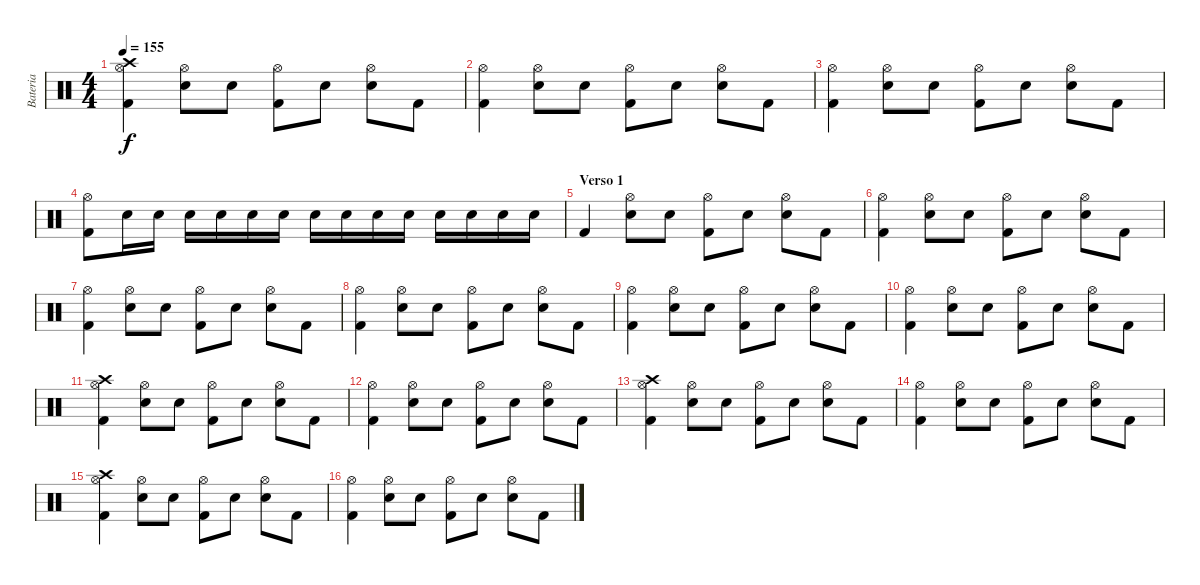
\track ("Bateria" "Bateria") {instrument percussion}
\staff {score}
\articulation defaults
\ts (4 4)
\tempo 155
\clef neutral
\ks c
("Crash high (hit)" "Hi-Hat (open)" "Kick (hit) 2").4{dy f} ("Hi-Hat (open)" "Electric Snare (hit)").8 "Electric Snare (hit)".8 ("Hi-Hat (open)" "Kick (hit) 2").8 "Electric Snare (hit)".8 ("Hi-Hat (open)" "Electric Snare (hit)").8 "Kick (hit) 2".8 |
("Hi-Hat (open)" "Kick (hit) 2").4 ("Hi-Hat (open)" "Electric Snare (hit)").8 "Electric Snare (hit)".8 ("Hi-Hat (open)" "Kick (hit) 2").8 "Electric Snare (hit)".8 ("Hi-Hat (open)" "Electric Snare (hit)").8 "Kick (hit) 2".8 |
("Hi-Hat (open)" "Kick (hit) 2").4 ("Hi-Hat (open)" "Electric Snare (hit)").8 "Electric Snare (hit)".8 ("Hi-Hat (open)" "Kick (hit) 2").8 "Electric Snare (hit)".8 ("Hi-Hat (open)" "Electric Snare (hit)").8 "Kick (hit) 2".8 |
("Hi-Hat (open)" "Kick (hit) 2").8 "Electric Snare (hit)".16 "Electric Snare (hit)".16 "Electric Snare (hit)".16 "Electric Snare (hit)".16 "Electric Snare (hit)".16 "Electric Snare (hit)".16 "Electric Snare (hit)".16 "Electric Snare (hit)".16 "Electric Snare (hit)".16 "Electric Snare (hit)".16 "Electric Snare (hit)".16 "Electric Snare (hit)".16 "Electric Snare (hit)".16 "Electric Snare (hit)".16 |
\section ("" "Verso 1")
"Kick (hit) 2".4 ("Hi-Hat (open)" "Electric Snare (hit)").8 "Electric Snare (hit)".8 ("Hi-Hat (open)" "Kick (hit) 2").8 "Electric Snare (hit)".8 ("Hi-Hat (open)" "Electric Snare (hit)").8 "Kick (hit) 2".8 |
("Hi-Hat (open)" "Kick (hit) 2").4 ("Hi-Hat (open)" "Electric Snare (hit)").8 "Electric Snare (hit)".8 ("Hi-Hat (open)" "Kick (hit) 2").8 "Electric Snare (hit)".8 ("Hi-Hat (open)" "Electric Snare (hit)").8 "Kick (hit) 2".8 |
("Hi-Hat (open)" "Kick (hit) 2").4 ("Hi-Hat (open)" "Electric Snare (hit)").8 "Electric Snare (hit)".8 ("Hi-Hat (open)" "Kick (hit) 2").8 "Electric Snare (hit)".8 ("Hi-Hat (open)" "Electric Snare (hit)").8 "Kick (hit) 2".8 |
("Hi-Hat (open)" "Kick (hit) 2").4 ("Hi-Hat (open)" "Electric Snare (hit)").8 "Electric Snare (hit)".8 ("Hi-Hat (open)" "Kick (hit) 2").8 "Electric Snare (hit)".8 ("Hi-Hat (open)" "Electric Snare (hit)").8 "Kick (hit) 2".8 |
("Hi-Hat (open)" "Kick (hit) 2").4 ("Hi-Hat (open)" "Electric Snare (hit)").8 "Electric Snare (hit)".8 ("Hi-Hat (open)" "Kick (hit) 2").8 "Electric Snare (hit)".8 ("Hi-Hat (open)" "Electric Snare (hit)").8 "Kick (hit) 2".8 |
("Hi-Hat (open)" "Kick (hit) 2").4 ("Hi-Hat (open)" "Electric Snare (hit)").8 "Electric Snare (hit)".8 ("Hi-Hat (open)" "Kick (hit) 2").8 "Electric Snare (hit)".8 ("Hi-Hat (open)" "Electric Snare (hit)").8 "Kick (hit) 2".8 |
("Crash high (hit)" "Hi-Hat (open)" "Kick (hit) 2").4 ("Hi-Hat (open)" "Electric Snare (hit)").8 "Electric Snare (hit)".8 ("Hi-Hat (open)" "Kick (hit) 2").8 "Electric Snare (hit)".8 ("Hi-Hat (open)" "Electric Snare (hit)").8 "Kick (hit) 2".8 |
("Hi-Hat (open)" "Kick (hit) 2").4 ("Hi-Hat (open)" "Electric Snare (hit)").8 "Electric Snare (hit)".8 ("Hi-Hat (open)" "Kick (hit) 2").8 "Electric Snare (hit)".8 ("Hi-Hat (open)" "Electric Snare (hit)").8 "Kick (hit) 2".8 |
("Crash high (hit)" "Hi-Hat (open)" "Kick (hit) 2").4 ("Hi-Hat (open)" "Electric Snare (hit)").8 "Electric Snare (hit)".8 ("Hi-Hat (open)" "Kick (hit) 2").8 "Electric Snare (hit)".8 ("Hi-Hat (open)" "Electric Snare (hit)").8 "Kick (hit) 2".8 |
("Hi-Hat (open)" "Kick (hit) 2").4 ("Hi-Hat (open)" "Electric Snare (hit)").8 "Electric Snare (hit)".8 ("Hi-Hat (open)" "Kick (hit) 2").8 "Electric Snare (hit)".8 ("Hi-Hat (open)" "Electric Snare (hit)").8 "Kick (hit) 2".8 |
("Crash high (hit)" "Hi-Hat (open)" "Kick (hit) 2").4 ("Hi-Hat (open)" "Electric Snare (hit)").8 "Electric Snare (hit)".8 ("Hi-Hat (open)" "Kick (hit) 2").8 "Electric Snare (hit)".8 ("Hi-Hat (open)" "Electric Snare (hit)").8 "Kick (hit) 2".8 |
("Hi-Hat (open)" "Kick (hit) 2").4 ("Hi-Hat (open)" "Electric Snare (hit)").8 "Electric Snare (hit)".8 ("Hi-Hat (open)" "Kick (hit) 2").8 "Electric Snare (hit)".8 ("Hi-Hat (open)" "Electric Snare (hit)").8 "Kick (hit) 2".8
